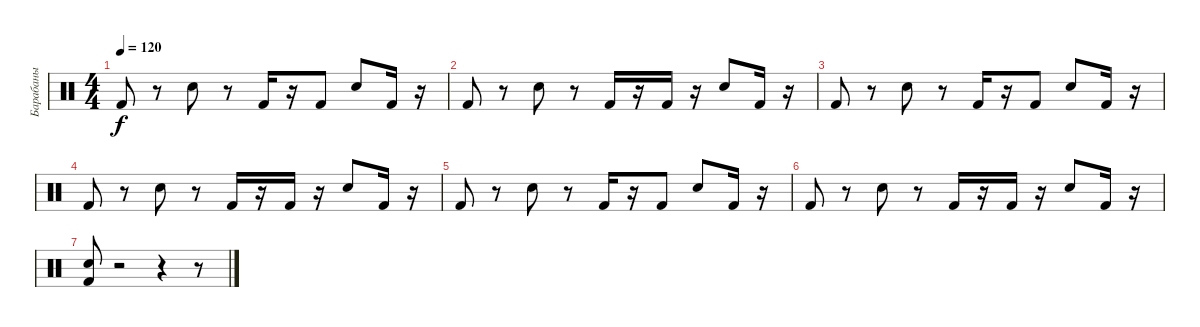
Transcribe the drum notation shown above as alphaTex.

\track ("Барабаны" "Барабаны") {instrument percussion}
\staff {score}
\articulation defaults
\ts (4 4)
\tempo 120
\clef neutral
\ks c "Kick (hit) 2".8{dy f}
r.8 "Electric Snare (hit)".8 r.8 "Kick (hit) 2".16 r.16 "Kick (hit) 2".8 "Electric Snare (hit)".8 "Kick (hit) 2".16 r.16 |
"Kick (hit) 2".8 r.8 "Electric Snare (hit)".8 r.8 "Kick (hit) 2".16 r.16 "Kick (hit) 2".16 r.16 "Electric Snare (hit)".8 "Kick (hit) 2".16 r.16 |
"Kick (hit) 2".8 r.8 "Electric Snare (hit)".8 r.8 "Kick (hit) 2".16 r.16 "Kick (hit) 2".8 "Electric Snare (hit)".8 "Kick (hit) 2".16 r.16 |
"Kick (hit) 2".8 r.8 "Electric Snare (hit)".8 r.8 "Kick (hit) 2".16 r.16 "Kick (hit) 2".16 r.16 "Electric Snare (hit)".8 "Kick (hit) 2".16 r.16 |
"Kick (hit) 2".8 r.8 "Electric Snare (hit)".8 r.8 "Kick (hit) 2".16 r.16 "Kick (hit) 2".8 "Electric Snare (hit)".8 "Kick (hit) 2".16 r.16 |
"Kick (hit) 2".8 r.8 "Electric Snare (hit)".8 r.8 "Kick (hit) 2".16 r.16 "Kick (hit) 2".16 r.16 "Electric Snare (hit)".8 "Kick (hit) 2".16 r.16 |
("Kick (hit) 2" "Electric Snare (hit)").8 r.2 r.4 r.8
